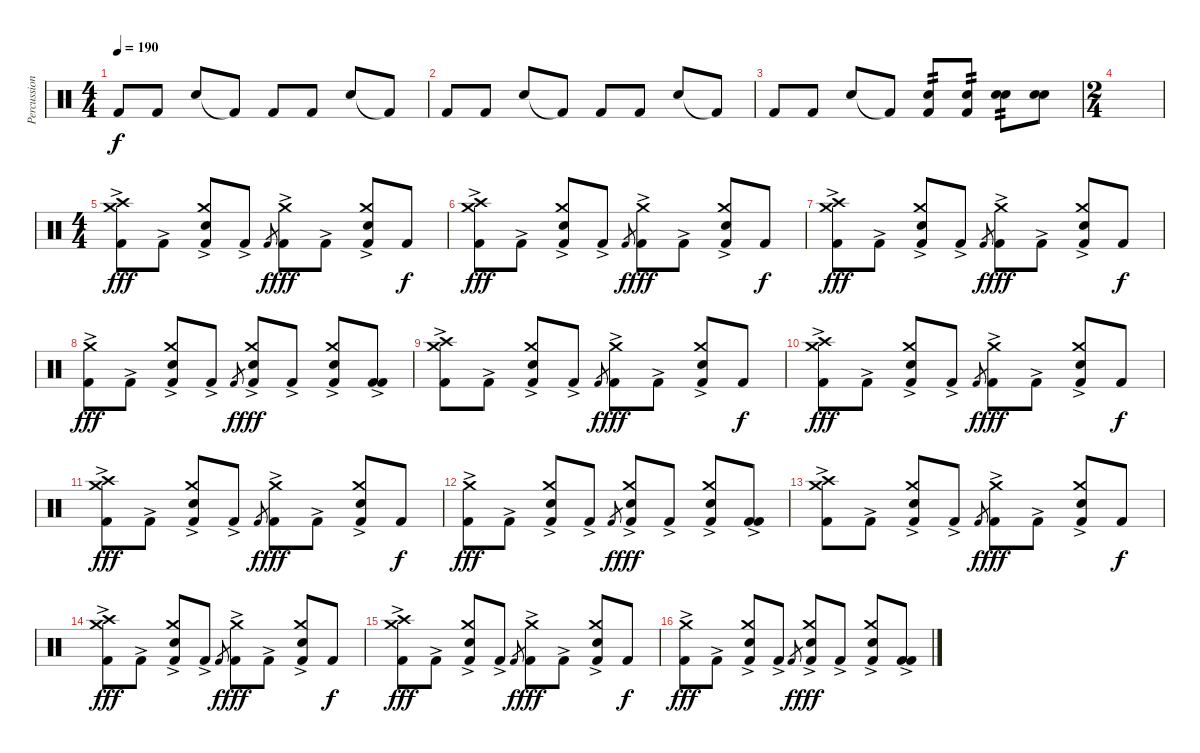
\track ("Percussions" "Percussion") {instrument percussion}
\staff {score}
\articulation defaults
\ts (4 4)
\tempo 190
\clef neutral
\ks c "Kick (hit) 2".8{dy f} "Kick (hit) 2".8 "Snare (hit) 2".8 "Kick (hit) 2"{t}.8 "Kick (hit) 2".8 "Kick (hit) 2".8 "Snare (hit) 2".8 "Kick (hit) 2"{t}.8
|
"Kick (hit) 2".8 "Kick (hit) 2".8 "Snare (hit) 2".8 "Kick (hit) 2"{t}.8 "Kick (hit) 2".8 "Kick (hit) 2".8 "Snare (hit) 2".8 "Kick (hit) 2"{t}.8 |
"Kick (hit) 2".8 "Kick (hit) 2".8 "Snare (hit) 2".8 "Kick (hit) 2"{t}.8 ("Snare (hit) 2" "Kick (hit) 2").8{tp 2} ("Snare (hit) 2" "Kick (hit) 2").8{tp 2} ("Snare (hit) 2" "Snare (hit) 2").8{tp 2} ("Snare (hit) 2" "Snare (hit) 2").8 |
\ts (2 4)
|
\ts (4 4)
("Crash high (hit)" "Crash medium (hit)" "Kick (hit) 2"{ac}).8{dy fff} "Kick (hit) 2"{ac}.8 ("Crash medium (hit)" "Electric Snare (hit)" "Kick (hit) 2"{ac}).8 "Kick (hit) 2"{ac}.8 "Kick (hit) 2".8{gr dy f} ("Crash medium (hit)" "Kick (hit) 2"{ac}).8{dy fff} "Kick (hit) 2"{ac}.8 ("Crash medium (hit)" "Electric Snare (hit)" "Kick (hit) 2"{ac}).8 "Kick (hit) 2".8{dy f} |
("Crash high (hit)" "Crash medium (hit)" "Kick (hit) 2"{ac}).8{dy fff} "Kick (hit) 2"{ac}.8 ("Crash medium (hit)" "Electric Snare (hit)" "Kick (hit) 2"{ac}).8 "Kick (hit) 2"{ac}.8 "Kick (hit) 2".8{gr dy f} ("Crash medium (hit)" "Kick (hit) 2"{ac}).8{dy fff} "Kick (hit) 2"{ac}.8 ("Crash medium (hit)" "Electric Snare (hit)" "Kick (hit) 2"{ac}).8 "Kick (hit) 2".8{dy f} |
("Crash high (hit)" "Crash medium (hit)" "Kick (hit) 2"{ac}).8{dy fff} "Kick (hit) 2"{ac}.8 ("Crash medium (hit)" "Electric Snare (hit)" "Kick (hit) 2"{ac}).8 "Kick (hit) 2"{ac}.8 "Kick (hit) 2".8{gr dy f} ("Crash medium (hit)" "Kick (hit) 2"{ac}).8{dy fff} "Kick (hit) 2"{ac}.8 ("Crash medium (hit)" "Electric Snare (hit)" "Kick (hit) 2"{ac}).8 "Kick (hit) 2".8{dy f} |
("Crash medium (hit)" "Kick (hit) 2"{ac}).8{dy fff} "Kick (hit) 2"{ac}.8 ("Crash medium (hit)" "Electric Snare (hit)" "Kick (hit) 2"{ac}).8 "Kick (hit) 2"{ac}.8 "Kick (hit) 2".8{gr dy f} ("Crash medium (hit)" "Electric Snare (hit)" "Kick (hit) 2"{ac}).8{dy fff} "Kick (hit) 2"{ac}.8 ("Crash medium (hit)" "Electric Snare (hit)" "Kick (hit) 2"{ac}).8 ("Kick (hit) 2" "Kick (hit) 2"{ac}).8 |
("Crash high (hit)" "Crash medium (hit)" "Kick (hit) 2"{ac}).8 "Kick (hit) 2"{ac}.8 ("Crash medium (hit)" "Electric Snare (hit)" "Kick (hit) 2"{ac}).8 "Kick (hit) 2"{ac}.8 "Kick (hit) 2".8{gr dy f} ("Crash medium (hit)" "Kick (hit) 2"{ac}).8{dy fff} "Kick (hit) 2"{ac}.8 ("Crash medium (hit)" "Electric Snare (hit)" "Kick (hit) 2"{ac}).8 "Kick (hit) 2".8{dy f} |
("Crash high (hit)" "Crash medium (hit)" "Kick (hit) 2"{ac}).8{dy fff} "Kick (hit) 2"{ac}.8 ("Crash medium (hit)" "Electric Snare (hit)" "Kick (hit) 2"{ac}).8 "Kick (hit) 2"{ac}.8 "Kick (hit) 2".8{gr dy f} ("Crash medium (hit)" "Kick (hit) 2"{ac}).8{dy fff} "Kick (hit) 2"{ac}.8 ("Crash medium (hit)" "Electric Snare (hit)" "Kick (hit) 2"{ac}).8 "Kick (hit) 2".8{dy f} |
("Crash high (hit)" "Crash medium (hit)" "Kick (hit) 2"{ac}).8{dy fff} "Kick (hit) 2"{ac}.8 ("Crash medium (hit)" "Electric Snare (hit)" "Kick (hit) 2"{ac}).8 "Kick (hit) 2"{ac}.8 "Kick (hit) 2".8{gr dy f} ("Crash medium (hit)" "Kick (hit) 2"{ac}).8{dy fff} "Kick (hit) 2"{ac}.8 ("Crash medium (hit)" "Electric Snare (hit)" "Kick (hit) 2"{ac}).8 "Kick (hit) 2".8{dy f} |
("Crash medium (hit)" "Kick (hit) 2"{ac}).8{dy fff} "Kick (hit) 2"{ac}.8 ("Crash medium (hit)" "Electric Snare (hit)" "Kick (hit) 2"{ac}).8 "Kick (hit) 2"{ac}.8 "Kick (hit) 2".8{gr dy f} ("Crash medium (hit)" "Electric Snare (hit)" "Kick (hit) 2"{ac}).8{dy fff} "Kick (hit) 2"{ac}.8 ("Crash medium (hit)" "Electric Snare (hit)" "Kick (hit) 2"{ac}).8 ("Kick (hit) 2" "Kick (hit) 2"{ac}).8 |
("Crash high (hit)" "Crash medium (hit)" "Kick (hit) 2"{ac}).8 "Kick (hit) 2"{ac}.8 ("Crash medium (hit)" "Electric Snare (hit)" "Kick (hit) 2"{ac}).8 "Kick (hit) 2"{ac}.8 "Kick (hit) 2".8{gr dy f} ("Crash medium (hit)" "Kick (hit) 2"{ac}).8{dy fff} "Kick (hit) 2"{ac}.8 ("Crash medium (hit)" "Electric Snare (hit)" "Kick (hit) 2"{ac}).8 "Kick (hit) 2".8{dy f} |
("Crash high (hit)" "Crash medium (hit)" "Kick (hit) 2"{ac}).8{dy fff} "Kick (hit) 2"{ac}.8 ("Crash medium (hit)" "Electric Snare (hit)" "Kick (hit) 2"{ac}).8 "Kick (hit) 2"{ac}.8 "Kick (hit) 2".8{gr dy f} ("Crash medium (hit)" "Kick (hit) 2"{ac}).8{dy fff} "Kick (hit) 2"{ac}.8 ("Crash medium (hit)" "Electric Snare (hit)" "Kick (hit) 2"{ac}).8 "Kick (hit) 2".8{dy f} |
("Crash high (hit)" "Crash medium (hit)" "Kick (hit) 2"{ac}).8{dy fff} "Kick (hit) 2"{ac}.8 ("Crash medium (hit)" "Electric Snare (hit)" "Kick (hit) 2"{ac}).8 "Kick (hit) 2"{ac}.8 "Kick (hit) 2".8{gr dy f} ("Crash medium (hit)" "Kick (hit) 2"{ac}).8{dy fff} "Kick (hit) 2"{ac}.8 ("Crash medium (hit)" "Electric Snare (hit)" "Kick (hit) 2"{ac}).8 "Kick (hit) 2".8{dy f} |
("Crash medium (hit)" "Kick (hit) 2"{ac}).8{dy fff} "Kick (hit) 2"{ac}.8 ("Crash medium (hit)" "Electric Snare (hit)" "Kick (hit) 2"{ac}).8 "Kick (hit) 2"{ac}.8 "Kick (hit) 2".8{gr dy f} ("Crash medium (hit)" "Electric Snare (hit)" "Kick (hit) 2"{ac}).8{dy fff} "Kick (hit) 2"{ac}.8 ("Crash medium (hit)" "Electric Snare (hit)" "Kick (hit) 2"{ac}).8 ("Kick (hit) 2" "Kick (hit) 2"{ac}).8
